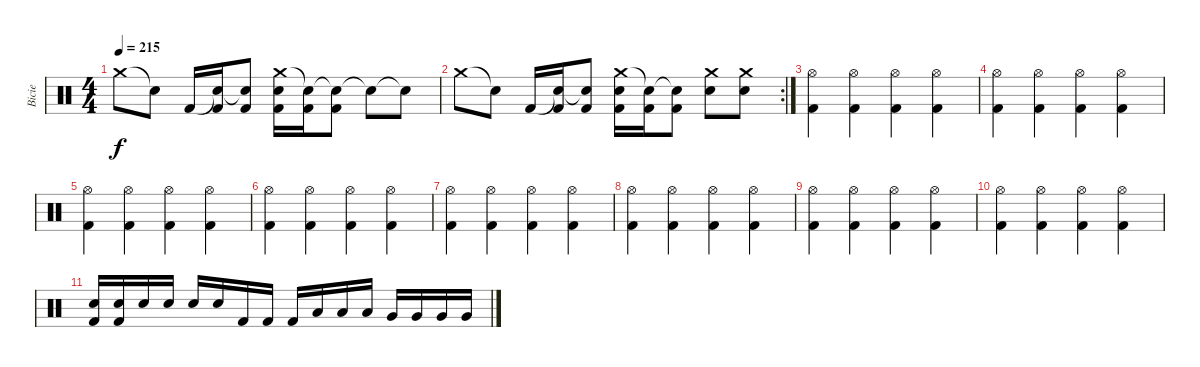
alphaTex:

\track ("Bicie" "Bicie") {instrument percussion}
\staff {score}
\articulation defaults
\ts (4 4)
\tempo 215
\clef neutral
\ks c "Crash medium (hit)".8{dy f} "Snare (hit)"{t}.8 "Kick (hit) 2".16
("Snare (hit)"{t} "Kick (hit) 2").16 ("Snare (hit)"{t} "Kick (hit) 2").8 ("Crash medium (hit)" "Electric Snare (hit)" "Kick (hit) 2").16 ("Snare (hit)"{t} "Kick (hit) 2").16 ("Snare (hit)"{t} "Kick (hit) 2").8 "Snare (hit)"{t}.8 "Snare (hit)"{t}.8 |
\rc 2 "Crash medium (hit)".8 "Snare (hit)"{t}.8 "Kick (hit) 2".16
("Snare (hit)"{t} "Kick (hit) 2").16 ("Snare (hit)"{t} "Kick (hit) 2").8 ("Crash medium (hit)" "Electric Snare (hit)" "Kick (hit) 2").16 ("Snare (hit)"{t} "Kick (hit) 2").16 ("Snare (hit)"{t} "Kick (hit) 2").8 ("Crash medium (hit)" "Electric Snare (hit)").8 ("Crash medium (hit)" "Electric Snare (hit)").8 |
("Hi-Hat (open)" "Kick (hit) 2").4 ("Hi-Hat (open)" "Kick (hit) 2").4 ("Hi-Hat (open)" "Kick (hit) 2").4 ("Hi-Hat (open)" "Kick (hit) 2").4 |
("Hi-Hat (open)" "Kick (hit) 2").4 ("Hi-Hat (open)" "Kick (hit) 2").4 ("Hi-Hat (open)" "Kick (hit) 2").4 ("Hi-Hat (open)" "Kick (hit) 2").4 |
("Hi-Hat (open)" "Kick (hit) 2").4 ("Hi-Hat (open)" "Kick (hit) 2").4 ("Hi-Hat (open)" "Kick (hit) 2").4 ("Hi-Hat (open)" "Kick (hit) 2").4 |
("Hi-Hat (open)" "Kick (hit) 2").4 ("Hi-Hat (open)" "Kick (hit) 2").4 ("Hi-Hat (open)" "Kick (hit) 2").4 ("Hi-Hat (open)" "Kick (hit) 2").4 |
("Hi-Hat (open)" "Kick (hit) 2").4 ("Hi-Hat (open)" "Kick (hit) 2").4 ("Hi-Hat (open)" "Kick (hit) 2").4 ("Hi-Hat (open)" "Kick (hit) 2").4 |
("Hi-Hat (open)" "Kick (hit) 2").4 ("Hi-Hat (open)" "Kick (hit) 2").4 ("Hi-Hat (open)" "Kick (hit) 2").4 ("Hi-Hat (open)" "Kick (hit) 2").4 |
("Hi-Hat (open)" "Kick (hit) 2").4 ("Hi-Hat (open)" "Kick (hit) 2").4 ("Hi-Hat (open)" "Kick (hit) 2").4 ("Hi-Hat (open)" "Kick (hit) 2").4 |
("Hi-Hat (open)" "Kick (hit) 2").4 ("Hi-Hat (open)" "Kick (hit) 2").4 ("Hi-Hat (open)" "Kick (hit) 2").4 ("Hi-Hat (open)" "Kick (hit) 2").4 |
("Electric Snare (hit)" "Kick (hit) 2").16 ("Electric Snare (hit)" "Kick (hit) 2").16 "Electric Snare (hit)".16 "Electric Snare (hit)".16 "Electric Snare (hit)".16 "Electric Snare (hit)".16 "Kick (hit) 2".16 "Kick (hit) 2".16 "Kick (hit) 2".16 "Low Tom (hit)".16 "Low Tom (hit)".16 "Low Tom (hit)".16 "Very Low Tom (hit)".16 "Very Low Tom (hit)".16 "Very Low Tom (hit)".16 "Very Low Tom (hit)".16
